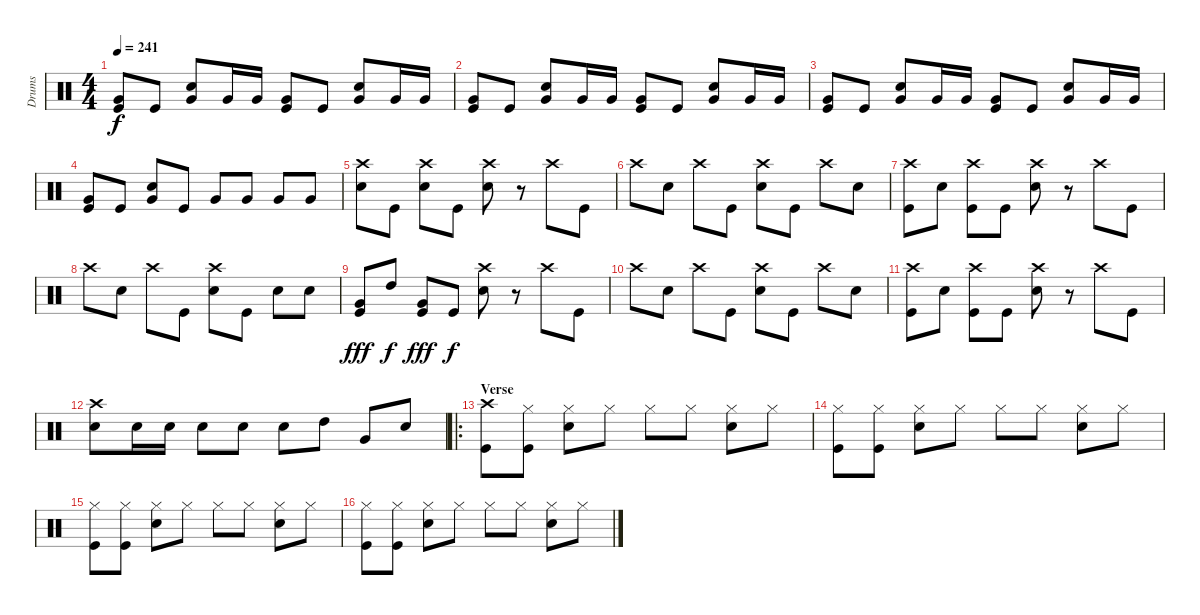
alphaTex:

\track ("Drums" "Drums") {instrument percussion}
\staff {score}
\articulation defaults
\ts (4 4)
\tempo 241
\clef neutral
\ks c
("Very Low Tom (hit)" "Kick (hit)").8{dy f} "Kick (hit)".8 ("Electric Snare (hit)" "Very Low Tom (hit)").8 "Very Low Tom (hit)".16 "Very Low Tom (hit)".16 ("Very Low Tom (hit)" "Kick (hit)").8 "Kick (hit)".8 ("Electric Snare (hit)" "Very Low Tom (hit)").8 "Very Low Tom (hit)".16 "Very Low Tom (hit)".16 |
("Very Low Tom (hit)" "Kick (hit)").8 "Kick (hit)".8 ("Electric Snare (hit)" "Very Low Tom (hit)").8 "Very Low Tom (hit)".16 "Very Low Tom (hit)".16 ("Very Low Tom (hit)" "Kick (hit)").8 "Kick (hit)".8 ("Electric Snare (hit)" "Very Low Tom (hit)").8 "Very Low Tom (hit)".16 "Very Low Tom (hit)".16 |
("Very Low Tom (hit)" "Kick (hit)").8 "Kick (hit)".8 ("Electric Snare (hit)" "Very Low Tom (hit)").8 "Very Low Tom (hit)".16 "Very Low Tom (hit)".16 ("Very Low Tom (hit)" "Kick (hit)").8 "Kick (hit)".8 ("Electric Snare (hit)" "Very Low Tom (hit)").8 "Very Low Tom (hit)".16 "Very Low Tom (hit)".16 |
("Very Low Tom (hit)" "Kick (hit)").8 "Kick (hit)".8 ("Electric Snare (hit)" "Very Low Tom (hit)").8 "Kick (hit)".8 "Very Low Tom (hit)".8 "Very Low Tom (hit)".8 "Very Low Tom (hit)".8 "Very Low Tom (hit)".8 |
("Crash high (hit)" "Electric Snare (hit)").8 "Kick (hit)".8 ("Crash high (hit)" "Electric Snare (hit)").8 "Kick (hit)".8 ("Crash high (hit)" "Electric Snare (hit)").8 r.8 "Crash high (hit)".8 "Kick (hit)".8 |
"Crash high (hit)".8 "Electric Snare (hit)".8 "Crash high (hit)".8 "Kick (hit)".8 ("Crash high (hit)" "Electric Snare (hit)").8 "Kick (hit)".8 "Crash high (hit)".8 "Electric Snare (hit)".8 |
("Crash high (hit)" "Kick (hit)").8 "Electric Snare (hit)".8 ("Crash high (hit)" "Kick (hit)").8 "Kick (hit)".8 ("Crash high (hit)" "Electric Snare (hit)").8 r.8 "Crash high (hit)".8 "Kick (hit)".8 |
"Crash high (hit)".8 "Electric Snare (hit)".8 "Crash high (hit)".8 "Kick (hit)".8 ("Crash high (hit)" "Electric Snare (hit)").8 "Kick (hit)".8 "Electric Snare (hit)".8 "Electric Snare (hit)".8 |
("Very Low Tom (hit)" "Kick (hit)").8{dy fff} "High Tom (hit)".8{dy f} ("Very Low Tom (hit)" "Kick (hit)").8{dy fff} "Kick (hit)".8{dy f} ("Crash high (hit)" "Electric Snare (hit)").8 r.8 "Crash high (hit)".8 "Kick (hit)".8 |
"Crash high (hit)".8 "Electric Snare (hit)".8 "Crash high (hit)".8 "Kick (hit)".8 ("Crash high (hit)" "Electric Snare (hit)").8 "Kick (hit)".8 "Crash high (hit)".8 "Electric Snare (hit)".8 |
("Crash high (hit)" "Kick (hit)").8 "Electric Snare (hit)".8 ("Crash high (hit)" "Kick (hit)").8 "Kick (hit)".8 ("Crash high (hit)" "Electric Snare (hit)").8 r.8 "Crash high (hit)".8 "Kick (hit)".8 |
("Crash high (hit)" "Electric Snare (hit)").8 "Electric Snare (hit)".16 "Electric Snare (hit)".16 "Electric Snare (hit)".8 "Electric Snare (hit)".8 "Electric Snare (hit)".8 "High Tom (hit)".8 "Very Low Tom (hit)".8 "Electric Snare (hit)".8 |
\ro
\section ("" "Verse")
("Crash high (hit)" "Kick (hit)").8 ("Hi-Hat (closed)" "Kick (hit)").8 ("Hi-Hat (closed)" "Electric Snare (hit)").8 "Hi-Hat (closed)".8 "Hi-Hat (closed)".8 "Hi-Hat (closed)".8 ("Hi-Hat (closed)" "Electric Snare (hit)").8 "Hi-Hat (closed)".8 |
("Hi-Hat (closed)" "Kick (hit)").8 ("Hi-Hat (closed)" "Kick (hit)").8 ("Hi-Hat (closed)" "Electric Snare (hit)").8 "Hi-Hat (closed)".8 "Hi-Hat (closed)".8 "Hi-Hat (closed)".8 ("Hi-Hat (closed)" "Electric Snare (hit)").8 "Hi-Hat (closed)".8 |
("Hi-Hat (closed)" "Kick (hit)").8 ("Hi-Hat (closed)" "Kick (hit)").8 ("Hi-Hat (closed)" "Electric Snare (hit)").8 "Hi-Hat (closed)".8 "Hi-Hat (closed)".8 "Hi-Hat (closed)".8 ("Hi-Hat (closed)" "Electric Snare (hit)").8 "Hi-Hat (closed)".8 |
("Hi-Hat (closed)" "Kick (hit)").8 ("Hi-Hat (closed)" "Kick (hit)").8 ("Hi-Hat (closed)" "Electric Snare (hit)").8 "Hi-Hat (closed)".8 "Hi-Hat (closed)".8 "Hi-Hat (closed)".8 ("Hi-Hat (closed)" "Electric Snare (hit)").8 "Hi-Hat (closed)".8
